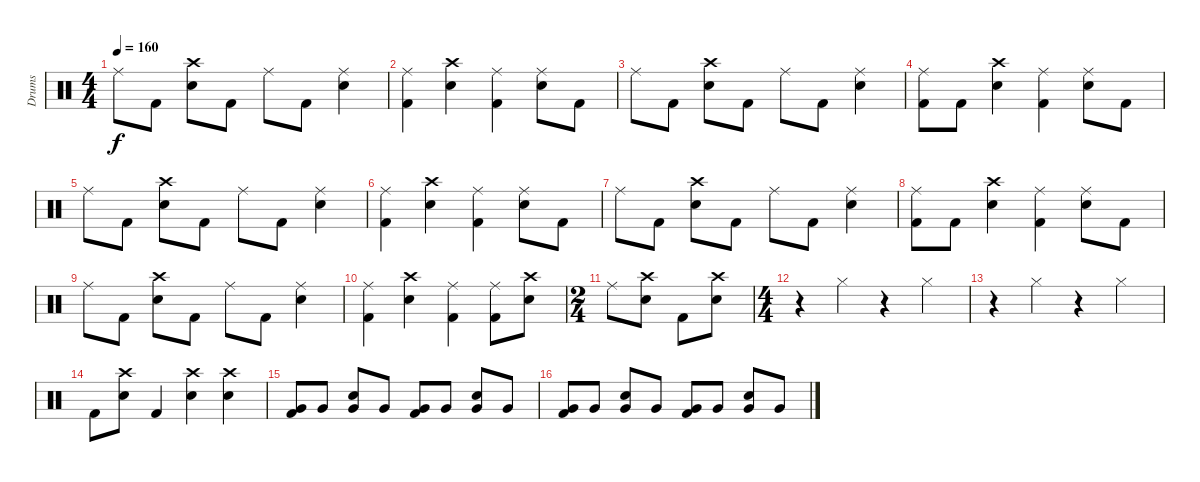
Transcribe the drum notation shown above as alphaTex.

\track ("Drums" "Drums") {instrument percussion}
\staff {score}
\articulation defaults
\ts (4 4)
\tempo 160
\clef neutral
\ks c "Ride (middle)".8{dy f} "Kick (hit) 2".8
("Crash high (hit)" "Electric Snare (hit)").8 "Kick (hit) 2".8 "Ride (middle)".8 "Kick (hit) 2".8 ("Ride (middle)" "Electric Snare (hit)").4 |
("Ride (middle)" "Kick (hit) 2").4 ("Crash high (hit)" "Electric Snare (hit)").4 ("Ride (middle)" "Kick (hit) 2").4 ("Ride (middle)" "Electric Snare (hit)").8 "Kick (hit) 2".8 |
"Ride (middle)".8 "Kick (hit) 2".8 ("Crash high (hit)" "Electric Snare (hit)").8 "Kick (hit) 2".8 "Ride (middle)".8 "Kick (hit) 2".8 ("Ride (middle)" "Electric Snare (hit)").4 |
("Ride (middle)" "Kick (hit) 2").8 "Kick (hit) 2".8 ("Crash high (hit)" "Electric Snare (hit)").4 ("Ride (middle)" "Kick (hit) 2").4 ("Ride (middle)" "Electric Snare (hit)").8 "Kick (hit) 2".8 |
"Ride (middle)".8 "Kick (hit) 2".8 ("Crash high (hit)" "Electric Snare (hit)").8 "Kick (hit) 2".8 "Ride (middle)".8 "Kick (hit) 2".8 ("Ride (middle)" "Electric Snare (hit)").4 |
("Ride (middle)" "Kick (hit) 2").4 ("Crash high (hit)" "Electric Snare (hit)").4 ("Ride (middle)" "Kick (hit) 2").4 ("Ride (middle)" "Electric Snare (hit)").8 "Kick (hit) 2".8 |
"Ride (middle)".8 "Kick (hit) 2".8 ("Crash high (hit)" "Electric Snare (hit)").8 "Kick (hit) 2".8 "Ride (middle)".8 "Kick (hit) 2".8 ("Ride (middle)" "Electric Snare (hit)").4 |
("Ride (middle)" "Kick (hit) 2").8 "Kick (hit) 2".8 ("Crash high (hit)" "Electric Snare (hit)").4 ("Ride (middle)" "Kick (hit) 2").4 ("Ride (middle)" "Electric Snare (hit)").8 "Kick (hit) 2".8 |
"Ride (middle)".8 "Kick (hit) 2".8 ("Crash high (hit)" "Electric Snare (hit)").8 "Kick (hit) 2".8 "Ride (middle)".8 "Kick (hit) 2".8 ("Ride (middle)" "Electric Snare (hit)").4 |
("Ride (middle)" "Kick (hit) 2").4 ("Crash high (hit)" "Electric Snare (hit)").4 ("Ride (middle)" "Kick (hit) 2").4 ("Ride (middle)" "Kick (hit) 2").8 ("Crash high (hit)" "Electric Snare (hit)").8 |
\ts (2 4)
"Ride (middle)".8 ("Crash high (hit)" "Electric Snare (hit)").8 "Kick (hit) 2".8 ("Crash high (hit)" "Electric Snare (hit)").8 |
\ts (4 4)
r.4 "Hi-Hat (closed)".4 r.4 "Hi-Hat (closed)".4 |
r.4 "Hi-Hat (closed)".4 r.4 "Hi-Hat (closed)".4 |
"Kick (hit) 2".8 ("Crash high (hit)" "Electric Snare (hit)").8 "Kick (hit) 2".4 ("Crash high (hit)" "Electric Snare (hit)").4 ("Crash high (hit)" "Electric Snare (hit)").4 |
("Very Low Tom (hit)" "Kick (hit) 2").8 "Very Low Tom (hit)".8 ("Electric Snare (hit)" "Very Low Tom (hit)").8 "Very Low Tom (hit)".8 ("Very Low Tom (hit)" "Kick (hit) 2").8 "Very Low Tom (hit)".8 ("Electric Snare (hit)" "Very Low Tom (hit)").8 "Very Low Tom (hit)".8 |
("Very Low Tom (hit)" "Kick (hit) 2").8 "Very Low Tom (hit)".8 ("Electric Snare (hit)" "Very Low Tom (hit)").8 "Very Low Tom (hit)".8 ("Very Low Tom (hit)" "Kick (hit) 2").8 "Very Low Tom (hit)".8 ("Electric Snare (hit)" "Very Low Tom (hit)").8 "Very Low Tom (hit)".8
